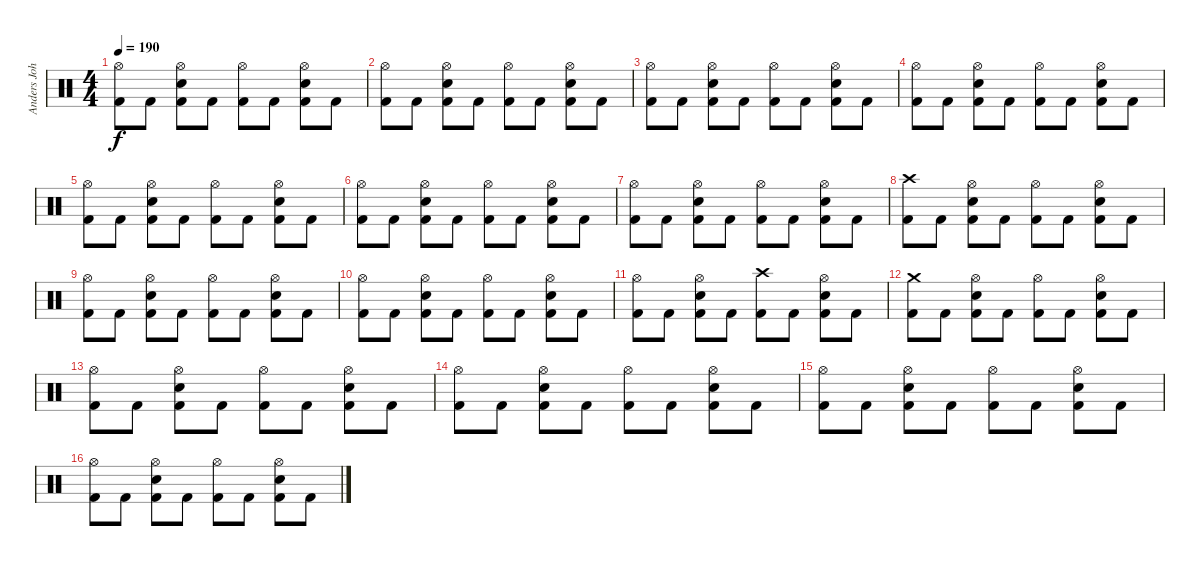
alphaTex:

\track ("Anders Johansson Drums" "Anders Joh") {instrument percussion}
\staff {score}
\articulation defaults
\ts (4 4)
\tempo 190
\clef neutral
\ks c
("Hi-Hat (open)" "Kick (hit) 2").8{dy f} "Kick (hit) 2".8 ("Hi-Hat (open)" "Snare (hit) 2" "Kick (hit) 2").8 "Kick (hit) 2".8 ("Hi-Hat (open)" "Kick (hit) 2").8 "Kick (hit) 2".8 ("Hi-Hat (open)" "Snare (hit) 2" "Kick (hit) 2").8 "Kick (hit) 2".8 |
("Hi-Hat (open)" "Kick (hit) 2").8 "Kick (hit) 2".8 ("Hi-Hat (open)" "Snare (hit) 2" "Kick (hit) 2").8 "Kick (hit) 2".8 ("Hi-Hat (open)" "Kick (hit) 2").8 "Kick (hit) 2".8 ("Hi-Hat (open)" "Snare (hit) 2" "Kick (hit) 2").8 "Kick (hit) 2".8 |
("Hi-Hat (open)" "Kick (hit) 2").8 "Kick (hit) 2".8 ("Hi-Hat (open)" "Snare (hit) 2" "Kick (hit) 2").8 "Kick (hit) 2".8 ("Hi-Hat (open)" "Kick (hit) 2").8 "Kick (hit) 2".8 ("Hi-Hat (open)" "Snare (hit) 2" "Kick (hit) 2").8 "Kick (hit) 2".8 |
("Hi-Hat (open)" "Kick (hit) 2").8 "Kick (hit) 2".8 ("Hi-Hat (open)" "Snare (hit) 2" "Kick (hit) 2").8 "Kick (hit) 2".8 ("Hi-Hat (open)" "Kick (hit) 2").8 "Kick (hit) 2".8 ("Hi-Hat (open)" "Snare (hit) 2" "Kick (hit) 2").8 "Kick (hit) 2".8 |
("Hi-Hat (open)" "Kick (hit) 2").8 "Kick (hit) 2".8 ("Hi-Hat (open)" "Snare (hit) 2" "Kick (hit) 2").8 "Kick (hit) 2".8 ("Hi-Hat (open)" "Kick (hit) 2").8 "Kick (hit) 2".8 ("Hi-Hat (open)" "Snare (hit) 2" "Kick (hit) 2").8 "Kick (hit) 2".8 |
("Hi-Hat (open)" "Kick (hit) 2").8 "Kick (hit) 2".8 ("Hi-Hat (open)" "Snare (hit) 2" "Kick (hit) 2").8 "Kick (hit) 2".8 ("Hi-Hat (open)" "Kick (hit) 2").8 "Kick (hit) 2".8 ("Hi-Hat (open)" "Snare (hit) 2" "Kick (hit) 2").8 "Kick (hit) 2".8 |
("Hi-Hat (open)" "Kick (hit) 2").8 "Kick (hit) 2".8 ("Hi-Hat (open)" "Snare (hit) 2" "Kick (hit) 2").8 "Kick (hit) 2".8 ("Hi-Hat (open)" "Kick (hit) 2").8 "Kick (hit) 2".8 ("Hi-Hat (open)" "Snare (hit) 2" "Kick (hit) 2").8 "Kick (hit) 2".8 |
("Crash high (hit)" "Kick (hit) 2").8 "Kick (hit) 2".8 ("Hi-Hat (open)" "Snare (hit) 2" "Kick (hit) 2").8 "Kick (hit) 2".8 ("Hi-Hat (open)" "Kick (hit) 2").8 "Kick (hit) 2".8 ("Hi-Hat (open)" "Snare (hit) 2" "Kick (hit) 2").8 "Kick (hit) 2".8 |
("Hi-Hat (open)" "Kick (hit) 2").8 "Kick (hit) 2".8 ("Hi-Hat (open)" "Snare (hit) 2" "Kick (hit) 2").8 "Kick (hit) 2".8 ("Hi-Hat (open)" "Kick (hit) 2").8 "Kick (hit) 2".8 ("Hi-Hat (open)" "Snare (hit) 2" "Kick (hit) 2").8 "Kick (hit) 2".8 |
("Hi-Hat (open)" "Kick (hit) 2").8 "Kick (hit) 2".8 ("Hi-Hat (open)" "Snare (hit) 2" "Kick (hit) 2").8 "Kick (hit) 2".8 ("Hi-Hat (open)" "Kick (hit) 2").8 "Kick (hit) 2".8 ("Hi-Hat (open)" "Snare (hit) 2" "Kick (hit) 2").8 "Kick (hit) 2".8 |
("Hi-Hat (open)" "Kick (hit) 2").8 "Kick (hit) 2".8 ("Hi-Hat (open)" "Snare (hit) 2" "Kick (hit) 2").8 "Kick (hit) 2".8 ("Crash high (hit)" "Kick (hit) 2").8 "Kick (hit) 2".8 ("Hi-Hat (open)" "Snare (hit) 2" "Kick (hit) 2").8 "Kick (hit) 2".8 |
("Crash medium (hit)" "Kick (hit) 2").8 "Kick (hit) 2".8 ("Hi-Hat (open)" "Snare (hit) 2" "Kick (hit) 2").8 "Kick (hit) 2".8 ("Hi-Hat (open)" "Kick (hit) 2").8 "Kick (hit) 2".8 ("Hi-Hat (open)" "Snare (hit) 2" "Kick (hit) 2").8 "Kick (hit) 2".8 |
("Hi-Hat (open)" "Kick (hit) 2").8 "Kick (hit) 2".8 ("Hi-Hat (open)" "Snare (hit) 2" "Kick (hit) 2").8 "Kick (hit) 2".8 ("Hi-Hat (open)" "Kick (hit) 2").8 "Kick (hit) 2".8 ("Hi-Hat (open)" "Snare (hit) 2" "Kick (hit) 2").8 "Kick (hit) 2".8 |
("Hi-Hat (open)" "Kick (hit) 2").8 "Kick (hit) 2".8 ("Hi-Hat (open)" "Snare (hit) 2" "Kick (hit) 2").8 "Kick (hit) 2".8 ("Hi-Hat (open)" "Kick (hit) 2").8 "Kick (hit) 2".8 ("Hi-Hat (open)" "Snare (hit) 2" "Kick (hit) 2").8 "Kick (hit) 2".8 |
("Hi-Hat (open)" "Kick (hit) 2").8 "Kick (hit) 2".8 ("Hi-Hat (open)" "Snare (hit) 2" "Kick (hit) 2").8 "Kick (hit) 2".8 ("Hi-Hat (open)" "Kick (hit) 2").8 "Kick (hit) 2".8 ("Hi-Hat (open)" "Snare (hit) 2" "Kick (hit) 2").8 "Kick (hit) 2".8 |
("Hi-Hat (open)" "Kick (hit) 2").8 "Kick (hit) 2".8 ("Hi-Hat (open)" "Snare (hit) 2" "Kick (hit) 2").8 "Kick (hit) 2".8 ("Hi-Hat (open)" "Kick (hit) 2").8 "Kick (hit) 2".8 ("Hi-Hat (open)" "Snare (hit) 2" "Kick (hit) 2").8 "Kick (hit) 2".8
